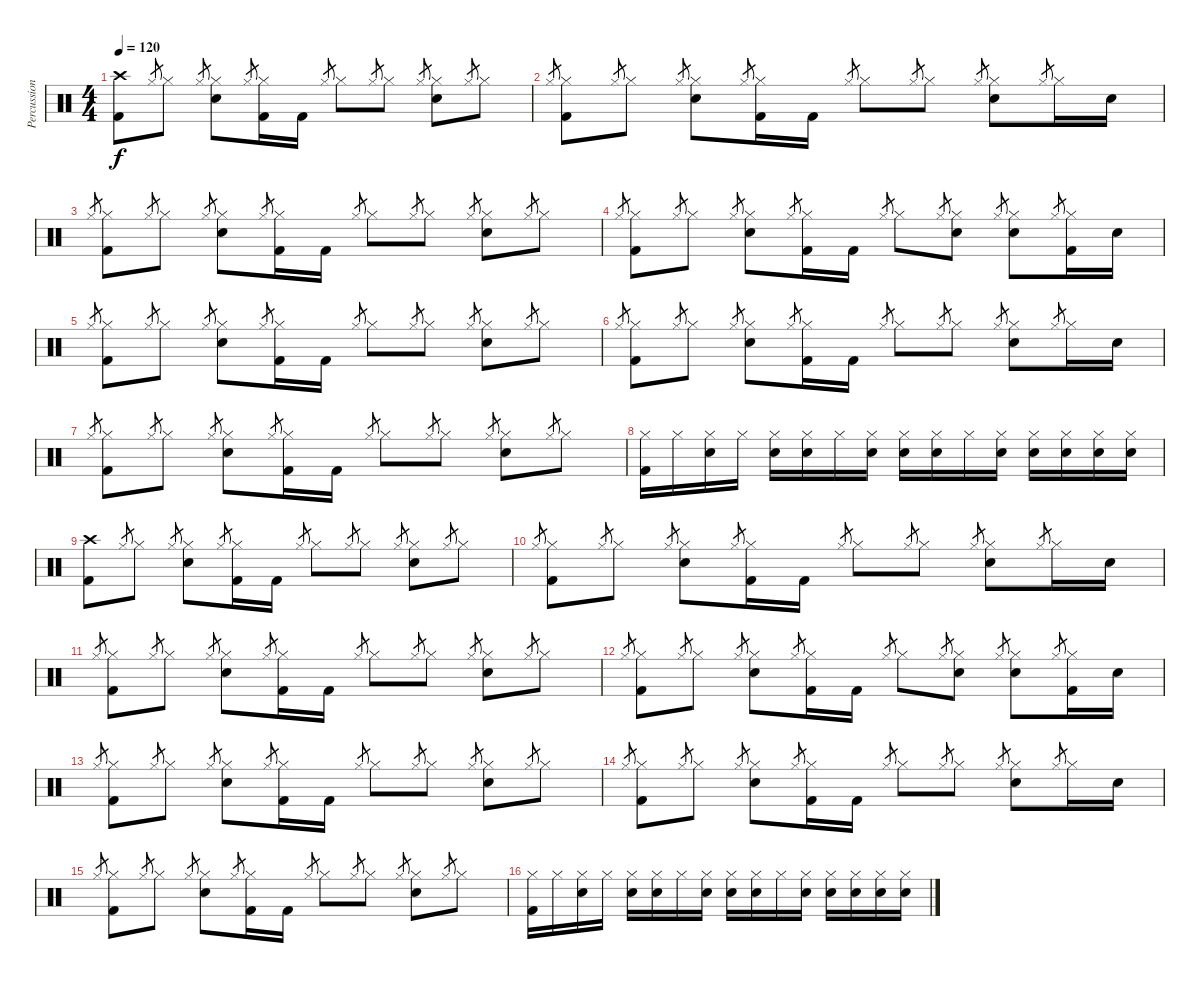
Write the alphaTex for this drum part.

\track ("Percussion" "Percussion") {instrument percussion}
\staff {score}
\articulation defaults
\ts (4 4)
\tempo 120
\clef neutral
\ks c
("Crash high (hit)" "Kick (hit) 2").8{dy f} "Hi-Hat (closed)".8{gr} "Hi-Hat (closed)".8 "Hi-Hat (closed)".8{gr} ("Hi-Hat (closed)" "Snare (hit) 2").8 "Hi-Hat (closed)".8{gr} ("Hi-Hat (closed)" "Kick (hit) 2").16 "Kick (hit) 2".16 "Hi-Hat (closed)".8{gr} "Hi-Hat (closed)".8 "Hi-Hat (closed)".8{gr} "Hi-Hat (closed)".8 "Hi-Hat (closed)".8{gr} ("Hi-Hat (closed)" "Snare (hit) 2").8 "Hi-Hat (closed)".8{gr} "Hi-Hat (closed)".8 |
"Hi-Hat (closed)".8{gr} ("Hi-Hat (closed)" "Kick (hit) 2").8 "Hi-Hat (closed)".8{gr} "Hi-Hat (closed)".8 "Hi-Hat (closed)".8{gr} ("Hi-Hat (closed)" "Snare (hit) 2").8 "Hi-Hat (closed)".8{gr} ("Hi-Hat (closed)" "Kick (hit) 2").16 "Kick (hit) 2".16 "Hi-Hat (closed)".8{gr} "Hi-Hat (closed)".8 "Hi-Hat (closed)".8{gr} "Hi-Hat (closed)".8 "Hi-Hat (closed)".8{gr} ("Hi-Hat (closed)" "Snare (hit) 2").8 "Hi-Hat (closed)".8{gr} "Hi-Hat (closed)".16 "Snare (hit) 2".16 |
"Hi-Hat (closed)".8{gr} ("Hi-Hat (closed)" "Kick (hit) 2").8 "Hi-Hat (closed)".8{gr} "Hi-Hat (closed)".8 "Hi-Hat (closed)".8{gr} ("Hi-Hat (closed)" "Snare (hit) 2").8 "Hi-Hat (closed)".8{gr} ("Hi-Hat (closed)" "Kick (hit) 2").16 "Kick (hit) 2".16 "Hi-Hat (closed)".8{gr} "Hi-Hat (closed)".8 "Hi-Hat (closed)".8{gr} "Hi-Hat (closed)".8 "Hi-Hat (closed)".8{gr} ("Hi-Hat (closed)" "Snare (hit) 2").8 "Hi-Hat (closed)".8{gr} "Hi-Hat (closed)".8 |
"Hi-Hat (closed)".8{gr} ("Hi-Hat (closed)" "Kick (hit) 2").8 "Hi-Hat (closed)".8{gr} "Hi-Hat (closed)".8 "Hi-Hat (closed)".8{gr} ("Hi-Hat (closed)" "Snare (hit) 2").8 "Hi-Hat (closed)".8{gr} ("Hi-Hat (closed)" "Kick (hit) 2").16 "Kick (hit) 2".16 "Hi-Hat (closed)".8{gr} "Hi-Hat (closed)".8 "Hi-Hat (closed)".8{gr} ("Hi-Hat (closed)" "Snare (hit) 2").8 "Hi-Hat (closed)".8{gr} ("Hi-Hat (closed)" "Snare (hit) 2").8 "Hi-Hat (closed)".8{gr} ("Hi-Hat (closed)" "Kick (hit) 2").16 "Snare (hit) 2".16 |
"Hi-Hat (closed)".8{gr} ("Hi-Hat (closed)" "Kick (hit) 2").8 "Hi-Hat (closed)".8{gr} "Hi-Hat (closed)".8 "Hi-Hat (closed)".8{gr} ("Hi-Hat (closed)" "Snare (hit) 2").8 "Hi-Hat (closed)".8{gr} ("Hi-Hat (closed)" "Kick (hit) 2").16 "Kick (hit) 2".16 "Hi-Hat (closed)".8{gr} "Hi-Hat (closed)".8 "Hi-Hat (closed)".8{gr} "Hi-Hat (closed)".8 "Hi-Hat (closed)".8{gr} ("Hi-Hat (closed)" "Snare (hit) 2").8 "Hi-Hat (closed)".8{gr} "Hi-Hat (closed)".8 |
"Hi-Hat (closed)".8{gr} ("Hi-Hat (closed)" "Kick (hit) 2").8 "Hi-Hat (closed)".8{gr} "Hi-Hat (closed)".8 "Hi-Hat (closed)".8{gr} ("Hi-Hat (closed)" "Snare (hit) 2").8 "Hi-Hat (closed)".8{gr} ("Hi-Hat (closed)" "Kick (hit) 2").16 "Kick (hit) 2".16 "Hi-Hat (closed)".8{gr} "Hi-Hat (closed)".8 "Hi-Hat (closed)".8{gr} "Hi-Hat (closed)".8 "Hi-Hat (closed)".8{gr} ("Hi-Hat (closed)" "Snare (hit) 2").8 "Hi-Hat (closed)".8{gr} "Hi-Hat (closed)".16 "Snare (hit) 2".16 |
"Hi-Hat (closed)".8{gr} ("Hi-Hat (closed)" "Kick (hit) 2").8 "Hi-Hat (closed)".8{gr} "Hi-Hat (closed)".8 "Hi-Hat (closed)".8{gr} ("Hi-Hat (closed)" "Snare (hit) 2").8 "Hi-Hat (closed)".8{gr} ("Hi-Hat (closed)" "Kick (hit) 2").16 "Kick (hit) 2".16 "Hi-Hat (closed)".8{gr} "Hi-Hat (closed)".8 "Hi-Hat (closed)".8{gr} "Hi-Hat (closed)".8 "Hi-Hat (closed)".8{gr} ("Hi-Hat (closed)" "Snare (hit) 2").8 "Hi-Hat (closed)".8{gr} "Hi-Hat (closed)".8 |
("Hi-Hat (closed)" "Kick (hit) 2").16 "Hi-Hat (closed)".16 ("Hi-Hat (closed)" "Snare (hit) 2").16 "Hi-Hat (closed)".16 ("Hi-Hat (closed)" "Snare (hit) 2").16 ("Hi-Hat (closed)" "Snare (hit) 2").16 "Hi-Hat (closed)".16 ("Hi-Hat (closed)" "Snare (hit) 2").16 ("Hi-Hat (closed)" "Snare (hit) 2").16 ("Hi-Hat (closed)" "Snare (hit) 2").16 "Hi-Hat (closed)".16 ("Hi-Hat (closed)" "Snare (hit) 2").16 ("Hi-Hat (closed)" "Snare (hit) 2").16 ("Hi-Hat (closed)" "Snare (hit) 2").16 ("Hi-Hat (closed)" "Snare (hit) 2").16 ("Hi-Hat (closed)" "Snare (hit) 2").16 |
("Crash high (hit)" "Kick (hit) 2").8 "Hi-Hat (closed)".8{gr} "Hi-Hat (closed)".8 "Hi-Hat (closed)".8{gr} ("Hi-Hat (closed)" "Snare (hit) 2").8 "Hi-Hat (closed)".8{gr} ("Hi-Hat (closed)" "Kick (hit) 2").16 "Kick (hit) 2".16 "Hi-Hat (closed)".8{gr} "Hi-Hat (closed)".8 "Hi-Hat (closed)".8{gr} "Hi-Hat (closed)".8 "Hi-Hat (closed)".8{gr} ("Hi-Hat (closed)" "Snare (hit) 2").8 "Hi-Hat (closed)".8{gr} "Hi-Hat (closed)".8 |
"Hi-Hat (closed)".8{gr} ("Hi-Hat (closed)" "Kick (hit) 2").8 "Hi-Hat (closed)".8{gr} "Hi-Hat (closed)".8 "Hi-Hat (closed)".8{gr} ("Hi-Hat (closed)" "Snare (hit) 2").8 "Hi-Hat (closed)".8{gr} ("Hi-Hat (closed)" "Kick (hit) 2").16 "Kick (hit) 2".16 "Hi-Hat (closed)".8{gr} "Hi-Hat (closed)".8 "Hi-Hat (closed)".8{gr} "Hi-Hat (closed)".8 "Hi-Hat (closed)".8{gr} ("Hi-Hat (closed)" "Snare (hit) 2").8 "Hi-Hat (closed)".8{gr} "Hi-Hat (closed)".16 "Snare (hit) 2".16 |
"Hi-Hat (closed)".8{gr} ("Hi-Hat (closed)" "Kick (hit) 2").8 "Hi-Hat (closed)".8{gr} "Hi-Hat (closed)".8 "Hi-Hat (closed)".8{gr} ("Hi-Hat (closed)" "Snare (hit) 2").8 "Hi-Hat (closed)".8{gr} ("Hi-Hat (closed)" "Kick (hit) 2").16 "Kick (hit) 2".16 "Hi-Hat (closed)".8{gr} "Hi-Hat (closed)".8 "Hi-Hat (closed)".8{gr} "Hi-Hat (closed)".8 "Hi-Hat (closed)".8{gr} ("Hi-Hat (closed)" "Snare (hit) 2").8 "Hi-Hat (closed)".8{gr} "Hi-Hat (closed)".8 |
"Hi-Hat (closed)".8{gr} ("Hi-Hat (closed)" "Kick (hit) 2").8 "Hi-Hat (closed)".8{gr} "Hi-Hat (closed)".8 "Hi-Hat (closed)".8{gr} ("Hi-Hat (closed)" "Snare (hit) 2").8 "Hi-Hat (closed)".8{gr} ("Hi-Hat (closed)" "Kick (hit) 2").16 "Kick (hit) 2".16 "Hi-Hat (closed)".8{gr} "Hi-Hat (closed)".8 "Hi-Hat (closed)".8{gr} ("Hi-Hat (closed)" "Snare (hit) 2").8 "Hi-Hat (closed)".8{gr} ("Hi-Hat (closed)" "Snare (hit) 2").8 "Hi-Hat (closed)".8{gr} ("Hi-Hat (closed)" "Kick (hit) 2").16 "Snare (hit) 2".16 |
"Hi-Hat (closed)".8{gr} ("Hi-Hat (closed)" "Kick (hit) 2").8 "Hi-Hat (closed)".8{gr} "Hi-Hat (closed)".8 "Hi-Hat (closed)".8{gr} ("Hi-Hat (closed)" "Snare (hit) 2").8 "Hi-Hat (closed)".8{gr} ("Hi-Hat (closed)" "Kick (hit) 2").16 "Kick (hit) 2".16 "Hi-Hat (closed)".8{gr} "Hi-Hat (closed)".8 "Hi-Hat (closed)".8{gr} "Hi-Hat (closed)".8 "Hi-Hat (closed)".8{gr} ("Hi-Hat (closed)" "Snare (hit) 2").8 "Hi-Hat (closed)".8{gr} "Hi-Hat (closed)".8 |
"Hi-Hat (closed)".8{gr} ("Hi-Hat (closed)" "Kick (hit) 2").8 "Hi-Hat (closed)".8{gr} "Hi-Hat (closed)".8 "Hi-Hat (closed)".8{gr} ("Hi-Hat (closed)" "Snare (hit) 2").8 "Hi-Hat (closed)".8{gr} ("Hi-Hat (closed)" "Kick (hit) 2").16 "Kick (hit) 2".16 "Hi-Hat (closed)".8{gr} "Hi-Hat (closed)".8 "Hi-Hat (closed)".8{gr} "Hi-Hat (closed)".8 "Hi-Hat (closed)".8{gr} ("Hi-Hat (closed)" "Snare (hit) 2").8 "Hi-Hat (closed)".8{gr} "Hi-Hat (closed)".16 "Snare (hit) 2".16 |
"Hi-Hat (closed)".8{gr} ("Hi-Hat (closed)" "Kick (hit) 2").8 "Hi-Hat (closed)".8{gr} "Hi-Hat (closed)".8 "Hi-Hat (closed)".8{gr} ("Hi-Hat (closed)" "Snare (hit) 2").8 "Hi-Hat (closed)".8{gr} ("Hi-Hat (closed)" "Kick (hit) 2").16 "Kick (hit) 2".16 "Hi-Hat (closed)".8{gr} "Hi-Hat (closed)".8 "Hi-Hat (closed)".8{gr} "Hi-Hat (closed)".8 "Hi-Hat (closed)".8{gr} ("Hi-Hat (closed)" "Snare (hit) 2").8 "Hi-Hat (closed)".8{gr} "Hi-Hat (closed)".8 |
("Hi-Hat (closed)" "Kick (hit) 2").16 "Hi-Hat (closed)".16 ("Hi-Hat (closed)" "Snare (hit) 2").16 "Hi-Hat (closed)".16 ("Hi-Hat (closed)" "Snare (hit) 2").16 ("Hi-Hat (closed)" "Snare (hit) 2").16 "Hi-Hat (closed)".16 ("Hi-Hat (closed)" "Snare (hit) 2").16 ("Hi-Hat (closed)" "Snare (hit) 2").16 ("Hi-Hat (closed)" "Snare (hit) 2").16 "Hi-Hat (closed)".16 ("Hi-Hat (closed)" "Snare (hit) 2").16 ("Hi-Hat (closed)" "Snare (hit) 2").16 ("Hi-Hat (closed)" "Snare (hit) 2").16 ("Hi-Hat (closed)" "Snare (hit) 2").16 ("Hi-Hat (closed)" "Snare (hit) 2").16
